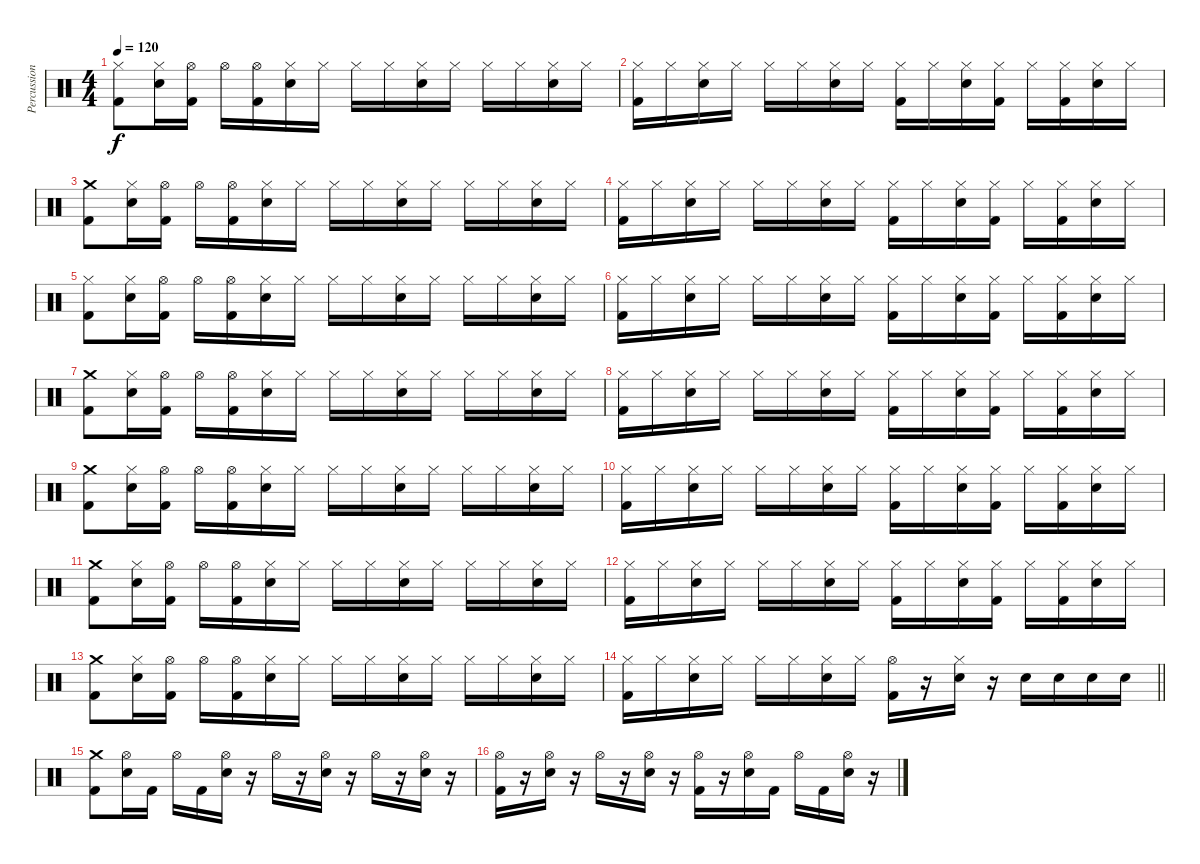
\track ("Percussion" "Percussion") {instrument percussion}
\staff {score}
\articulation defaults
\ts (4 4)
\tempo 120
\clef neutral
\ks c
("Hi-Hat (closed)" "Kick (hit) 2").8{dy f} ("Hi-Hat (closed)" "Electric Snare (hit)").16 ("Hi-Hat (open)" "Kick (hit) 2").16 "Hi-Hat (open)".16 ("Hi-Hat (open)" "Kick (hit) 2").16 ("Hi-Hat (closed)" "Electric Snare (hit)").16 "Hi-Hat (closed)".16 "Hi-Hat (closed)".16 "Hi-Hat (closed)".16 ("Hi-Hat (closed)" "Electric Snare (hit)").16 "Hi-Hat (closed)".16 "Hi-Hat (closed)".16 "Hi-Hat (closed)".16 ("Hi-Hat (closed)" "Electric Snare (hit)").16 "Hi-Hat (closed)".16 |
("Hi-Hat (closed)" "Kick (hit) 2").16 "Hi-Hat (closed)".16 ("Hi-Hat (closed)" "Electric Snare (hit)").16 "Hi-Hat (closed)".16 "Hi-Hat (closed)".16 "Hi-Hat (closed)".16 ("Hi-Hat (closed)" "Electric Snare (hit)").16 "Hi-Hat (closed)".16 ("Hi-Hat (closed)" "Kick (hit) 2").16 "Hi-Hat (closed)".16 ("Hi-Hat (closed)" "Electric Snare (hit)").16 ("Hi-Hat (closed)" "Kick (hit) 2").16 "Hi-Hat (closed)".16 ("Hi-Hat (closed)" "Kick (hit) 2").16 ("Hi-Hat (closed)" "Electric Snare (hit)").16 "Hi-Hat (closed)".16 |
("Crash medium (hit)" "Kick (hit) 2").8 ("Hi-Hat (closed)" "Electric Snare (hit)").16 ("Hi-Hat (open)" "Kick (hit) 2").16 "Hi-Hat (open)".16 ("Hi-Hat (open)" "Kick (hit) 2").16 ("Hi-Hat (closed)" "Electric Snare (hit)").16 "Hi-Hat (closed)".16 "Hi-Hat (closed)".16 "Hi-Hat (closed)".16 ("Hi-Hat (closed)" "Electric Snare (hit)").16 "Hi-Hat (closed)".16 "Hi-Hat (closed)".16 "Hi-Hat (closed)".16 ("Hi-Hat (closed)" "Electric Snare (hit)").16 "Hi-Hat (closed)".16 |
("Hi-Hat (closed)" "Kick (hit) 2").16 "Hi-Hat (closed)".16 ("Hi-Hat (closed)" "Electric Snare (hit)").16 "Hi-Hat (closed)".16 "Hi-Hat (closed)".16 "Hi-Hat (closed)".16 ("Hi-Hat (closed)" "Electric Snare (hit)").16 "Hi-Hat (closed)".16 ("Hi-Hat (closed)" "Kick (hit) 2").16 "Hi-Hat (closed)".16 ("Hi-Hat (closed)" "Electric Snare (hit)").16 ("Hi-Hat (closed)" "Kick (hit) 2").16 "Hi-Hat (closed)".16 ("Hi-Hat (closed)" "Kick (hit) 2").16 ("Hi-Hat (closed)" "Electric Snare (hit)").16 "Hi-Hat (closed)".16 |
("Hi-Hat (closed)" "Kick (hit) 2").8 ("Hi-Hat (closed)" "Electric Snare (hit)").16 ("Hi-Hat (open)" "Kick (hit) 2").16 "Hi-Hat (open)".16 ("Hi-Hat (open)" "Kick (hit) 2").16 ("Hi-Hat (closed)" "Electric Snare (hit)").16 "Hi-Hat (closed)".16 "Hi-Hat (closed)".16 "Hi-Hat (closed)".16 ("Hi-Hat (closed)" "Electric Snare (hit)").16 "Hi-Hat (closed)".16 "Hi-Hat (closed)".16 "Hi-Hat (closed)".16 ("Hi-Hat (closed)" "Electric Snare (hit)").16 "Hi-Hat (closed)".16 |
("Hi-Hat (closed)" "Kick (hit) 2").16 "Hi-Hat (closed)".16 ("Hi-Hat (closed)" "Electric Snare (hit)").16 "Hi-Hat (closed)".16 "Hi-Hat (closed)".16 "Hi-Hat (closed)".16 ("Hi-Hat (closed)" "Electric Snare (hit)").16 "Hi-Hat (closed)".16 ("Hi-Hat (closed)" "Kick (hit) 2").16 "Hi-Hat (closed)".16 ("Hi-Hat (closed)" "Electric Snare (hit)").16 ("Hi-Hat (closed)" "Kick (hit) 2").16 "Hi-Hat (closed)".16 ("Hi-Hat (closed)" "Kick (hit) 2").16 ("Hi-Hat (closed)" "Electric Snare (hit)").16 "Hi-Hat (closed)".16 |
("Crash medium (hit)" "Kick (hit) 2").8 ("Hi-Hat (closed)" "Electric Snare (hit)").16 ("Hi-Hat (open)" "Kick (hit) 2").16 "Hi-Hat (open)".16 ("Hi-Hat (open)" "Kick (hit) 2").16 ("Hi-Hat (closed)" "Electric Snare (hit)").16 "Hi-Hat (closed)".16 "Hi-Hat (closed)".16 "Hi-Hat (closed)".16 ("Hi-Hat (closed)" "Electric Snare (hit)").16 "Hi-Hat (closed)".16 "Hi-Hat (closed)".16 "Hi-Hat (closed)".16 ("Hi-Hat (closed)" "Electric Snare (hit)").16 "Hi-Hat (closed)".16 |
("Hi-Hat (closed)" "Kick (hit) 2").16 "Hi-Hat (closed)".16 ("Hi-Hat (closed)" "Electric Snare (hit)").16 "Hi-Hat (closed)".16 "Hi-Hat (closed)".16 "Hi-Hat (closed)".16 ("Hi-Hat (closed)" "Electric Snare (hit)").16 "Hi-Hat (closed)".16 ("Hi-Hat (closed)" "Kick (hit) 2").16 "Hi-Hat (closed)".16 ("Hi-Hat (closed)" "Electric Snare (hit)").16 ("Hi-Hat (closed)" "Kick (hit) 2").16 "Hi-Hat (closed)".16 ("Hi-Hat (closed)" "Kick (hit) 2").16 ("Hi-Hat (closed)" "Electric Snare (hit)").16 "Hi-Hat (closed)".16 |
("Crash medium (hit)" "Kick (hit) 2").8 ("Hi-Hat (closed)" "Electric Snare (hit)").16 ("Hi-Hat (open)" "Kick (hit) 2").16 "Hi-Hat (open)".16 ("Hi-Hat (open)" "Kick (hit) 2").16 ("Hi-Hat (closed)" "Electric Snare (hit)").16 "Hi-Hat (closed)".16 "Hi-Hat (closed)".16 "Hi-Hat (closed)".16 ("Hi-Hat (closed)" "Electric Snare (hit)").16 "Hi-Hat (closed)".16 "Hi-Hat (closed)".16 "Hi-Hat (closed)".16 ("Hi-Hat (closed)" "Electric Snare (hit)").16 "Hi-Hat (closed)".16 |
("Hi-Hat (closed)" "Kick (hit) 2").16 "Hi-Hat (closed)".16 ("Hi-Hat (closed)" "Electric Snare (hit)").16 "Hi-Hat (closed)".16 "Hi-Hat (closed)".16 "Hi-Hat (closed)".16 ("Hi-Hat (closed)" "Electric Snare (hit)").16 "Hi-Hat (closed)".16 ("Hi-Hat (closed)" "Kick (hit) 2").16 "Hi-Hat (closed)".16 ("Hi-Hat (closed)" "Electric Snare (hit)").16 ("Hi-Hat (closed)" "Kick (hit) 2").16 "Hi-Hat (closed)".16 ("Hi-Hat (closed)" "Kick (hit) 2").16 ("Hi-Hat (closed)" "Electric Snare (hit)").16 "Hi-Hat (closed)".16 |
("Crash medium (hit)" "Kick (hit) 2").8 ("Hi-Hat (closed)" "Electric Snare (hit)").16 ("Hi-Hat (open)" "Kick (hit) 2").16 "Hi-Hat (open)".16 ("Hi-Hat (open)" "Kick (hit) 2").16 ("Hi-Hat (closed)" "Electric Snare (hit)").16 "Hi-Hat (closed)".16 "Hi-Hat (closed)".16 "Hi-Hat (closed)".16 ("Hi-Hat (closed)" "Electric Snare (hit)").16 "Hi-Hat (closed)".16 "Hi-Hat (closed)".16 "Hi-Hat (closed)".16 ("Hi-Hat (closed)" "Electric Snare (hit)").16 "Hi-Hat (closed)".16 |
("Hi-Hat (closed)" "Kick (hit) 2").16 "Hi-Hat (closed)".16 ("Hi-Hat (closed)" "Electric Snare (hit)").16 "Hi-Hat (closed)".16 "Hi-Hat (closed)".16 "Hi-Hat (closed)".16 ("Hi-Hat (closed)" "Electric Snare (hit)").16 "Hi-Hat (closed)".16 ("Hi-Hat (closed)" "Kick (hit) 2").16 "Hi-Hat (closed)".16 ("Hi-Hat (closed)" "Electric Snare (hit)").16 ("Hi-Hat (closed)" "Kick (hit) 2").16 "Hi-Hat (closed)".16 ("Hi-Hat (closed)" "Kick (hit) 2").16 ("Hi-Hat (closed)" "Electric Snare (hit)").16 "Hi-Hat (closed)".16 |
("Crash medium (hit)" "Kick (hit) 2").8 ("Hi-Hat (closed)" "Electric Snare (hit)").16 ("Hi-Hat (open)" "Kick (hit) 2").16 "Hi-Hat (open)".16 ("Hi-Hat (open)" "Kick (hit) 2").16 ("Hi-Hat (closed)" "Electric Snare (hit)").16 "Hi-Hat (closed)".16 "Hi-Hat (closed)".16 "Hi-Hat (closed)".16 ("Hi-Hat (closed)" "Electric Snare (hit)").16 "Hi-Hat (closed)".16 "Hi-Hat (closed)".16 "Hi-Hat (closed)".16 ("Hi-Hat (closed)" "Electric Snare (hit)").16 "Hi-Hat (closed)".16 |
\barLineRight lightlight
("Hi-Hat (closed)" "Kick (hit) 2").16 "Hi-Hat (closed)".16 ("Hi-Hat (closed)" "Electric Snare (hit)").16 "Hi-Hat (closed)".16 "Hi-Hat (closed)".16 "Hi-Hat (closed)".16 ("Hi-Hat (closed)" "Electric Snare (hit)").16 "Hi-Hat (closed)".16 ("Hi-Hat (open)" "Kick (hit) 2").16 r.16 ("Hi-Hat (closed)" "Electric Snare (hit)").16 r.16 "Electric Snare (hit)".16 "Electric Snare (hit)".16 "Electric Snare (hit)".16 "Electric Snare (hit)".16 |
("Crash medium (hit)" "Kick (hit) 2").8 ("Hi-Hat (open)" "Electric Snare (hit)").16 "Kick (hit) 2".16 "Hi-Hat (open)".16 "Kick (hit) 2".16 ("Hi-Hat (open)" "Electric Snare (hit)").16 r.16 "Hi-Hat (open)".16 r.16 ("Hi-Hat (open)" "Electric Snare (hit)").16 r.16 "Hi-Hat (open)".16 r.16 ("Hi-Hat (open)" "Electric Snare (hit)").16 r.16 |
("Hi-Hat (open)" "Kick (hit) 2").16 r.16 ("Hi-Hat (open)" "Electric Snare (hit)").16 r.16 "Hi-Hat (open)".16 r.16 ("Hi-Hat (open)" "Electric Snare (hit)").16 r.16 ("Hi-Hat (open)" "Kick (hit) 2").16 r.16 ("Hi-Hat (open)" "Electric Snare (hit)").16 "Kick (hit) 2".16 "Hi-Hat (open)".16 "Kick (hit) 2".16 ("Hi-Hat (open)" "Electric Snare (hit)").16 r.16
